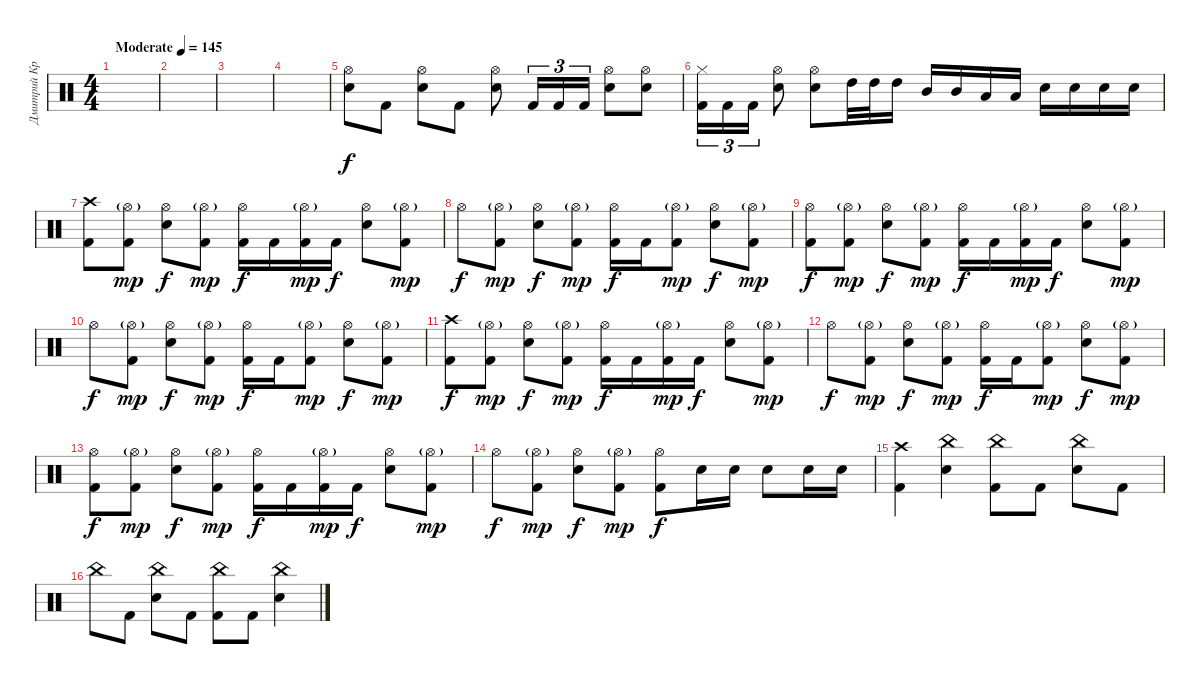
\track ("Дмитрий Кривенков" "Дмитрий Кр") {instrument percussion}
\staff {score}
\articulation defaults
\ts (4 4)
\tempo (145 "Moderate")
\clef neutral
\ks c
|
|
|
|
("Hi-Hat (open)" "Electric Snare (hit)").8 "Kick (hit) 2".8 ("Hi-Hat (open)" "Electric Snare (hit)").8 "Kick (hit) 2".8 ("Hi-Hat (open)" "Electric Snare (hit)").8 "Kick (hit) 2".16{tu (3 2)} "Kick (hit) 2".16{tu (3 2)} "Kick (hit) 2".16{tu (3 2)} ("Hi-Hat (open)" "Electric Snare (hit)").8 ("Hi-Hat (open)" "Electric Snare (hit)").8 |
("Hi-Hat (closed)" "Kick (hit) 2").16{tu (3 2)} "Kick (hit) 2".16{tu (3 2)} "Kick (hit) 2".16{tu (3 2)} ("Hi-Hat (open)" "Electric Snare (hit)").8 ("Hi-Hat (open)" "Electric Snare (hit)").8 "High Tom (hit)".32 "High Tom (hit)".32 "High Tom (hit)".16 "Mid Tom (hit)".16 "Mid Tom (hit)".16 "Low Tom (hit)".16 "Low Tom (hit)".16 "Electric Snare (hit)".16 "Electric Snare (hit)".16 "Electric Snare (hit)".16 "Electric Snare (hit)".16 |
("Crash high (hit)" "Kick (hit) 2").8 ("Hi-Hat (open)"{g} "Kick (hit) 2").8{dy mp} ("Hi-Hat (open)" "Electric Snare (hit)").8{dy f} ("Hi-Hat (open)"{g} "Kick (hit) 2").8{dy mp} ("Hi-Hat (open)" "Kick (hit) 2").16{dy f} "Kick (hit) 2".16 ("Hi-Hat (open)"{g} "Kick (hit) 2").16{dy mp} "Kick (hit) 2".16{dy f} ("Hi-Hat (open)" "Electric Snare (hit)").8 ("Hi-Hat (open)"{g} "Kick (hit) 2").8{dy mp} |
"Hi-Hat (open)".8{dy f} ("Hi-Hat (open)"{g} "Kick (hit) 2").8{dy mp} ("Hi-Hat (open)" "Electric Snare (hit)").8{dy f} ("Hi-Hat (open)"{g} "Kick (hit) 2").8{dy mp} ("Hi-Hat (open)" "Kick (hit) 2").16{dy f} "Kick (hit) 2".16 ("Hi-Hat (open)"{g} "Kick (hit) 2").8{dy mp} ("Hi-Hat (open)" "Electric Snare (hit)").8{dy f} ("Hi-Hat (open)"{g} "Kick (hit) 2").8{dy mp} |
("Hi-Hat (open)" "Kick (hit) 2").8{dy f} ("Hi-Hat (open)"{g} "Kick (hit) 2").8{dy mp} ("Hi-Hat (open)" "Electric Snare (hit)").8{dy f} ("Hi-Hat (open)"{g} "Kick (hit) 2").8{dy mp} ("Hi-Hat (open)" "Kick (hit) 2").16{dy f} "Kick (hit) 2".16 ("Hi-Hat (open)"{g} "Kick (hit) 2").16{dy mp} "Kick (hit) 2".16{dy f} ("Hi-Hat (open)" "Electric Snare (hit)").8 ("Hi-Hat (open)"{g} "Kick (hit) 2").8{dy mp} |
"Hi-Hat (open)".8{dy f} ("Hi-Hat (open)"{g} "Kick (hit) 2").8{dy mp} ("Hi-Hat (open)" "Electric Snare (hit)").8{dy f} ("Hi-Hat (open)"{g} "Kick (hit) 2").8{dy mp} ("Hi-Hat (open)" "Kick (hit) 2").16{dy f} "Kick (hit) 2".16 ("Hi-Hat (open)"{g} "Kick (hit) 2").8{dy mp} ("Hi-Hat (open)" "Electric Snare (hit)").8{dy f} ("Hi-Hat (open)"{g} "Kick (hit) 2").8{dy mp} |
("Crash high (hit)" "Kick (hit) 2").8{dy f} ("Hi-Hat (open)"{g} "Kick (hit) 2").8{dy mp} ("Hi-Hat (open)" "Electric Snare (hit)").8{dy f} ("Hi-Hat (open)"{g} "Kick (hit) 2").8{dy mp} ("Hi-Hat (open)" "Kick (hit) 2").16{dy f} "Kick (hit) 2".16 ("Hi-Hat (open)"{g} "Kick (hit) 2").16{dy mp} "Kick (hit) 2".16{dy f} ("Hi-Hat (open)" "Electric Snare (hit)").8 ("Hi-Hat (open)"{g} "Kick (hit) 2").8{dy mp} |
"Hi-Hat (open)".8{dy f} ("Hi-Hat (open)"{g} "Kick (hit) 2").8{dy mp} ("Hi-Hat (open)" "Electric Snare (hit)").8{dy f} ("Hi-Hat (open)"{g} "Kick (hit) 2").8{dy mp} ("Hi-Hat (open)" "Kick (hit) 2").16{dy f} "Kick (hit) 2".16 ("Hi-Hat (open)"{g} "Kick (hit) 2").8{dy mp} ("Hi-Hat (open)" "Electric Snare (hit)").8{dy f} ("Hi-Hat (open)"{g} "Kick (hit) 2").8{dy mp} |
("Hi-Hat (open)" "Kick (hit) 2").8{dy f} ("Hi-Hat (open)"{g} "Kick (hit) 2").8{dy mp} ("Hi-Hat (open)" "Electric Snare (hit)").8{dy f} ("Hi-Hat (open)"{g} "Kick (hit) 2").8{dy mp} ("Hi-Hat (open)" "Kick (hit) 2").16{dy f} "Kick (hit) 2".16 ("Hi-Hat (open)"{g} "Kick (hit) 2").16{dy mp} "Kick (hit) 2".16{dy f} ("Hi-Hat (open)" "Electric Snare (hit)").8 ("Hi-Hat (open)"{g} "Kick (hit) 2").8{dy mp} |
"Hi-Hat (open)".8{dy f} ("Hi-Hat (open)"{g} "Kick (hit) 2").8{dy mp} ("Hi-Hat (open)" "Electric Snare (hit)").8{dy f} ("Hi-Hat (open)"{g} "Kick (hit) 2").8{dy mp} ("Hi-Hat (open)" "Kick (hit) 2").8{dy f} "Electric Snare (hit)".16 "Electric Snare (hit)".16 "Electric Snare (hit)".8 "Electric Snare (hit)".16 "Electric Snare (hit)".16 |
("Crash high (hit)" "Kick (hit) 2").4 ("China (hit)" "Electric Snare (hit)").4 ("China (hit)" "Kick (hit) 2").8 "Kick (hit) 2".8 ("China (hit)" "Electric Snare (hit)").8 "Kick (hit) 2".8 |
"China (hit)".8 "Kick (hit) 2".8 ("China (hit)" "Electric Snare (hit)").8 "Kick (hit) 2".8 ("China (hit)" "Kick (hit) 2").8 "Kick (hit) 2".8 ("China (hit)" "Electric Snare (hit)").4
